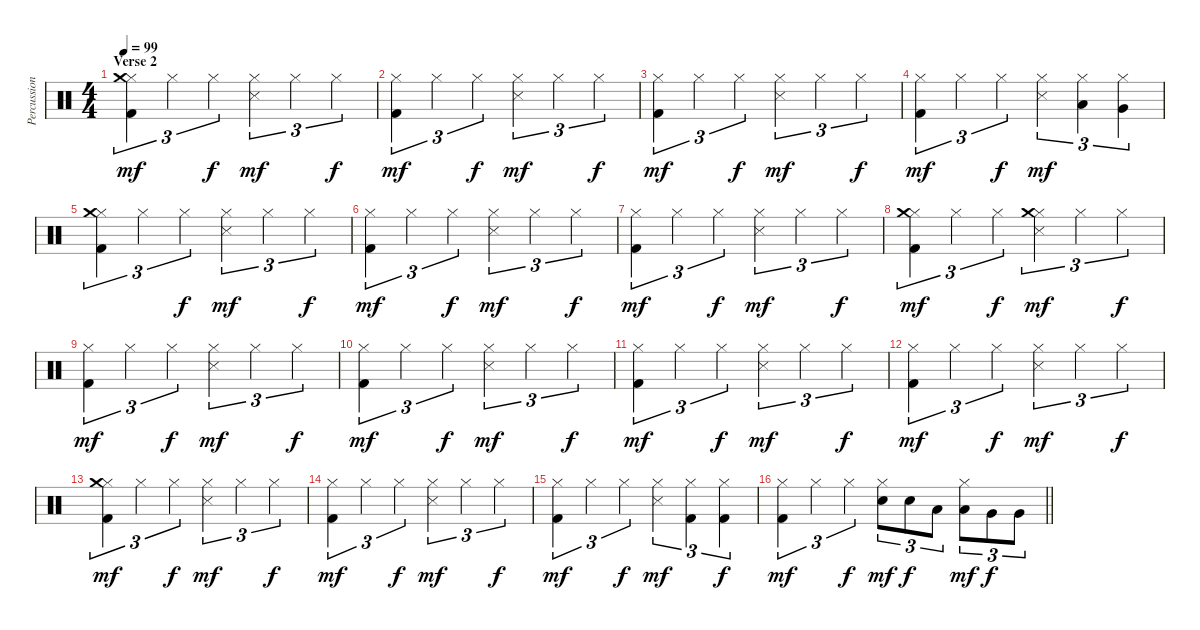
\track ("Percussion" "Percussion") {instrument percussion}
\staff {score}
\articulation defaults
\ts (4 4)
\section ("" "Verse 2")
\tempo 99
\clef neutral
\ks c
("Hi-Hat (closed)" "Crash medium (hit)" "Kick (hit) 2").4{tu (3 2) dy mf} "Hi-Hat (closed)".4{tu (3 2)} "Hi-Hat (closed)".4{tu (3 2) dy f} ("Hi-Hat (closed)" "Snare (side stick) 3").4{tu (3 2) dy mf} "Hi-Hat (closed)".4{tu (3 2)} "Hi-Hat (closed)".4{tu (3 2) dy f} |
("Hi-Hat (closed)" "Kick (hit) 2").4{tu (3 2) dy mf} "Hi-Hat (closed)".4{tu (3 2)} "Hi-Hat (closed)".4{tu (3 2) dy f} ("Hi-Hat (closed)" "Snare (side stick) 3").4{tu (3 2) dy mf} "Hi-Hat (closed)".4{tu (3 2)} "Hi-Hat (closed)".4{tu (3 2) dy f} |
("Hi-Hat (closed)" "Kick (hit) 2").4{tu (3 2) dy mf} "Hi-Hat (closed)".4{tu (3 2)} "Hi-Hat (closed)".4{tu (3 2) dy f} ("Hi-Hat (closed)" "Snare (side stick) 3").4{tu (3 2) dy mf} "Hi-Hat (closed)".4{tu (3 2)} "Hi-Hat (closed)".4{tu (3 2) dy f} |
("Hi-Hat (closed)" "Kick (hit) 2").4{tu (3 2) dy mf} "Hi-Hat (closed)".4{tu (3 2)} "Hi-Hat (closed)".4{tu (3 2) dy f} ("Hi-Hat (closed)" "Snare (side stick) 3").4{tu (3 2) dy mf} ("Hi-Hat (closed)" "Low Tom (hit)").4{tu (3 2)} ("Hi-Hat (closed)" "Very Low Tom (hit)").4{tu (3 2)} |
("Hi-Hat (closed)" "Crash medium (hit)" "Kick (hit) 2").4{tu (3 2)} "Hi-Hat (closed)".4{tu (3 2)} "Hi-Hat (closed)".4{tu (3 2) dy f} ("Hi-Hat (closed)" "Snare (side stick) 3").4{tu (3 2) dy mf} "Hi-Hat (closed)".4{tu (3 2)} "Hi-Hat (closed)".4{tu (3 2) dy f} |
("Hi-Hat (closed)" "Kick (hit) 2").4{tu (3 2) dy mf} "Hi-Hat (closed)".4{tu (3 2)} "Hi-Hat (closed)".4{tu (3 2) dy f} ("Hi-Hat (closed)" "Snare (side stick) 3").4{tu (3 2) dy mf} "Hi-Hat (closed)".4{tu (3 2)} "Hi-Hat (closed)".4{tu (3 2) dy f} |
("Hi-Hat (closed)" "Kick (hit) 2").4{tu (3 2) dy mf} "Hi-Hat (closed)".4{tu (3 2)} "Hi-Hat (closed)".4{tu (3 2) dy f} ("Hi-Hat (closed)" "Snare (side stick) 3").4{tu (3 2) dy mf} "Hi-Hat (closed)".4{tu (3 2)} "Hi-Hat (closed)".4{tu (3 2) dy f} |
("Hi-Hat (closed)" "Crash medium (hit)" "Kick (hit) 2").4{tu (3 2) dy mf} "Hi-Hat (closed)".4{tu (3 2)} "Hi-Hat (closed)".4{tu (3 2) dy f} ("Hi-Hat (closed)" "Crash medium (hit)" "Snare (side stick) 3").4{tu (3 2) dy mf} "Hi-Hat (closed)".4{tu (3 2)} "Hi-Hat (closed)".4{tu (3 2) dy f} |
("Hi-Hat (closed)" "Kick (hit) 2").4{tu (3 2) dy mf} "Hi-Hat (closed)".4{tu (3 2)} "Hi-Hat (closed)".4{tu (3 2) dy f} ("Hi-Hat (closed)" "Snare (side stick) 3").4{tu (3 2) dy mf} "Hi-Hat (closed)".4{tu (3 2)} "Hi-Hat (closed)".4{tu (3 2) dy f} |
("Hi-Hat (closed)" "Kick (hit) 2").4{tu (3 2) dy mf} "Hi-Hat (closed)".4{tu (3 2)} "Hi-Hat (closed)".4{tu (3 2) dy f} ("Hi-Hat (closed)" "Snare (side stick) 3").4{tu (3 2) dy mf} "Hi-Hat (closed)".4{tu (3 2)} "Hi-Hat (closed)".4{tu (3 2) dy f} |
("Hi-Hat (closed)" "Kick (hit) 2").4{tu (3 2) dy mf} "Hi-Hat (closed)".4{tu (3 2)} "Hi-Hat (closed)".4{tu (3 2) dy f} ("Hi-Hat (closed)" "Snare (side stick) 3").4{tu (3 2) dy mf} "Hi-Hat (closed)".4{tu (3 2)} "Hi-Hat (closed)".4{tu (3 2) dy f} |
("Hi-Hat (closed)" "Kick (hit) 2").4{tu (3 2) dy mf} "Hi-Hat (closed)".4{tu (3 2)} "Hi-Hat (closed)".4{tu (3 2) dy f} ("Hi-Hat (closed)" "Snare (side stick) 3").4{tu (3 2) dy mf} "Hi-Hat (closed)".4{tu (3 2)} "Hi-Hat (closed)".4{tu (3 2) dy f} |
("Hi-Hat (closed)" "Crash medium (hit)" "Kick (hit) 2").4{tu (3 2) dy mf} "Hi-Hat (closed)".4{tu (3 2)} "Hi-Hat (closed)".4{tu (3 2) dy f} ("Hi-Hat (closed)" "Snare (side stick) 3").4{tu (3 2) dy mf} "Hi-Hat (closed)".4{tu (3 2)} "Hi-Hat (closed)".4{tu (3 2) dy f} |
("Hi-Hat (closed)" "Kick (hit) 2").4{tu (3 2) dy mf} "Hi-Hat (closed)".4{tu (3 2)} "Hi-Hat (closed)".4{tu (3 2) dy f} ("Hi-Hat (closed)" "Snare (side stick) 3").4{tu (3 2) dy mf} "Hi-Hat (closed)".4{tu (3 2)} "Hi-Hat (closed)".4{tu (3 2) dy f} |
("Hi-Hat (closed)" "Kick (hit) 2").4{tu (3 2) dy mf} "Hi-Hat (closed)".4{tu (3 2)} "Hi-Hat (closed)".4{tu (3 2) dy f} ("Hi-Hat (closed)" "Snare (side stick) 3").4{tu (3 2) dy mf} ("Hi-Hat (closed)" "Kick (hit) 2").4{tu (3 2)} ("Hi-Hat (closed)" "Kick (hit) 2").4{tu (3 2) dy f} |
\barLineRight lightlight
("Hi-Hat (closed)" "Kick (hit) 2").4{tu (3 2) dy mf} "Hi-Hat (closed)".4{tu (3 2)} "Hi-Hat (closed)".4{tu (3 2) dy f} ("Hi-Hat (closed)" "Electric Snare (hit)").8{tu (3 2) dy mf} "Electric Snare (hit)".8{tu (3 2) dy f} "Low Tom (hit)".8{tu (3 2)} ("Hi-Hat (closed)" "Low Tom (hit)").8{tu (3 2) dy mf} "Very Low Tom (hit)".8{tu (3 2) dy f} "Very Low Tom (hit)".8{tu (3 2)}
